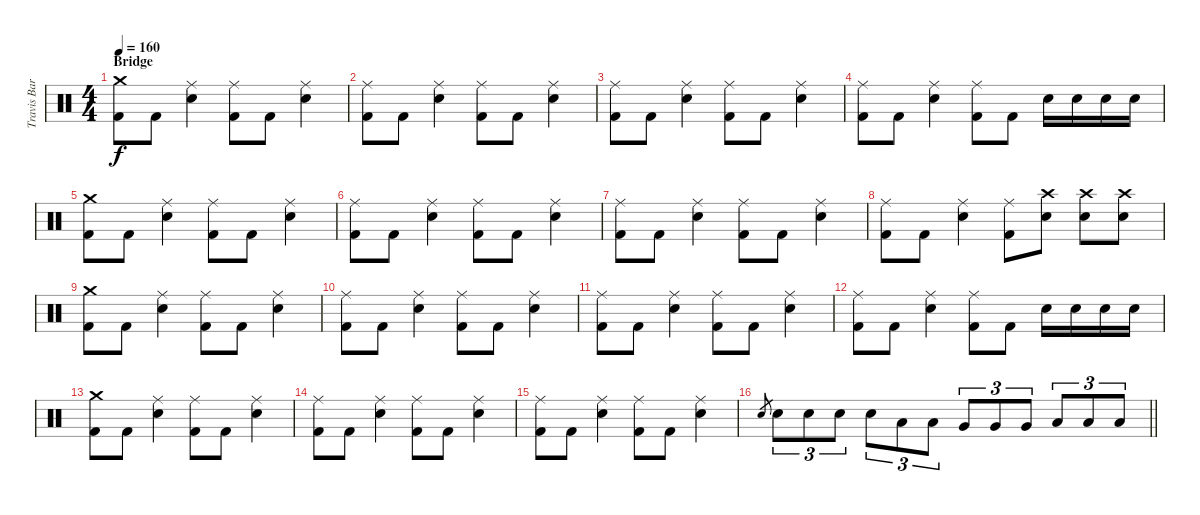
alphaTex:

\track ("Travis Barker - Drums" "Travis Bar") {instrument percussion}
\staff {score}
\articulation defaults
\ts (4 4)
\section ("" "Bridge")
\tempo 160
\clef neutral
\ks c
("Crash medium (hit)" "Kick (hit) 2").8{dy f} "Kick (hit) 2".8 ("Ride (middle)" "Electric Snare (hit)").4 ("Ride (middle)" "Kick (hit) 2").8 "Kick (hit) 2".8 ("Ride (middle)" "Electric Snare (hit)").4 |
("Ride (middle)" "Kick (hit) 2").8 "Kick (hit) 2".8 ("Ride (middle)" "Electric Snare (hit)").4 ("Ride (middle)" "Kick (hit) 2").8 "Kick (hit) 2".8 ("Ride (middle)" "Electric Snare (hit)").4 |
("Ride (middle)" "Kick (hit) 2").8 "Kick (hit) 2".8 ("Ride (middle)" "Electric Snare (hit)").4 ("Ride (middle)" "Kick (hit) 2").8 "Kick (hit) 2".8 ("Ride (middle)" "Electric Snare (hit)").4 |
("Ride (middle)" "Kick (hit) 2").8 "Kick (hit) 2".8 ("Ride (middle)" "Electric Snare (hit)").4 ("Ride (middle)" "Kick (hit) 2").8 "Kick (hit) 2".8 "Electric Snare (hit)".16 "Electric Snare (hit)".16 "Electric Snare (hit)".16 "Electric Snare (hit)".16 |
("Crash medium (hit)" "Kick (hit) 2").8 "Kick (hit) 2".8 ("Ride (middle)" "Electric Snare (hit)").4 ("Ride (middle)" "Kick (hit) 2").8 "Kick (hit) 2".8 ("Ride (middle)" "Electric Snare (hit)").4 |
("Ride (middle)" "Kick (hit) 2").8 "Kick (hit) 2".8 ("Ride (middle)" "Electric Snare (hit)").4 ("Ride (middle)" "Kick (hit) 2").8 "Kick (hit) 2".8 ("Ride (middle)" "Electric Snare (hit)").4 |
("Ride (middle)" "Kick (hit) 2").8 "Kick (hit) 2".8 ("Ride (middle)" "Electric Snare (hit)").4 ("Ride (middle)" "Kick (hit) 2").8 "Kick (hit) 2".8 ("Ride (middle)" "Electric Snare (hit)").4 |
("Ride (middle)" "Kick (hit) 2").8 "Kick (hit) 2".8 ("Ride (middle)" "Electric Snare (hit)").4 ("Ride (middle)" "Kick (hit) 2").8 ("Crash high (hit)" "Electric Snare (hit)").8 ("Crash high (hit)" "Electric Snare (hit)").8 ("Crash high (hit)" "Electric Snare (hit)").8 |
("Crash medium (hit)" "Kick (hit) 2").8 "Kick (hit) 2".8 ("Ride (middle)" "Electric Snare (hit)").4 ("Ride (middle)" "Kick (hit) 2").8 "Kick (hit) 2".8 ("Ride (middle)" "Electric Snare (hit)").4 |
("Ride (middle)" "Kick (hit) 2").8 "Kick (hit) 2".8 ("Ride (middle)" "Electric Snare (hit)").4 ("Ride (middle)" "Kick (hit) 2").8 "Kick (hit) 2".8 ("Ride (middle)" "Electric Snare (hit)").4 |
("Ride (middle)" "Kick (hit) 2").8 "Kick (hit) 2".8 ("Ride (middle)" "Electric Snare (hit)").4 ("Ride (middle)" "Kick (hit) 2").8 "Kick (hit) 2".8 ("Ride (middle)" "Electric Snare (hit)").4 |
("Ride (middle)" "Kick (hit) 2").8 "Kick (hit) 2".8 ("Ride (middle)" "Electric Snare (hit)").4 ("Ride (middle)" "Kick (hit) 2").8 "Kick (hit) 2".8 "Electric Snare (hit)".16 "Electric Snare (hit)".16 "Electric Snare (hit)".16 "Electric Snare (hit)".16 |
("Crash medium (hit)" "Kick (hit) 2").8 "Kick (hit) 2".8 ("Ride (middle)" "Electric Snare (hit)").4 ("Ride (middle)" "Kick (hit) 2").8 "Kick (hit) 2".8 ("Ride (middle)" "Electric Snare (hit)").4 |
("Ride (middle)" "Kick (hit) 2").8 "Kick (hit) 2".8 ("Ride (middle)" "Electric Snare (hit)").4 ("Ride (middle)" "Kick (hit) 2").8 "Kick (hit) 2".8 ("Ride (middle)" "Electric Snare (hit)").4 |
("Ride (middle)" "Kick (hit) 2").8 "Kick (hit) 2".8 ("Ride (middle)" "Electric Snare (hit)").4 ("Ride (middle)" "Kick (hit) 2").8 "Kick (hit) 2".8 ("Ride (middle)" "Electric Snare (hit)").4 |
\barLineRight lightlight "Electric Snare (hit)".8{gr} "Electric Snare (hit)".8{tu (3 2)} "Electric Snare (hit)".8{tu (3 2)} "Electric Snare (hit)".8{tu (3 2)} "Electric Snare (hit)".8{tu (3 2)} "Low Tom (hit)".8{tu (3 2)} "Low Tom (hit)".8{tu (3 2)} "Very Low Tom (hit)".8{tu (3 2)} "Very Low Tom (hit)".8{tu (3 2)} "Very Low Tom (hit)".8{tu (3 2)} "Low Floor Tom (hit)".8{tu (3 2)} "Low Floor Tom (hit)".8{tu (3 2)} "Low Floor Tom (hit)".8{tu (3 2)}
